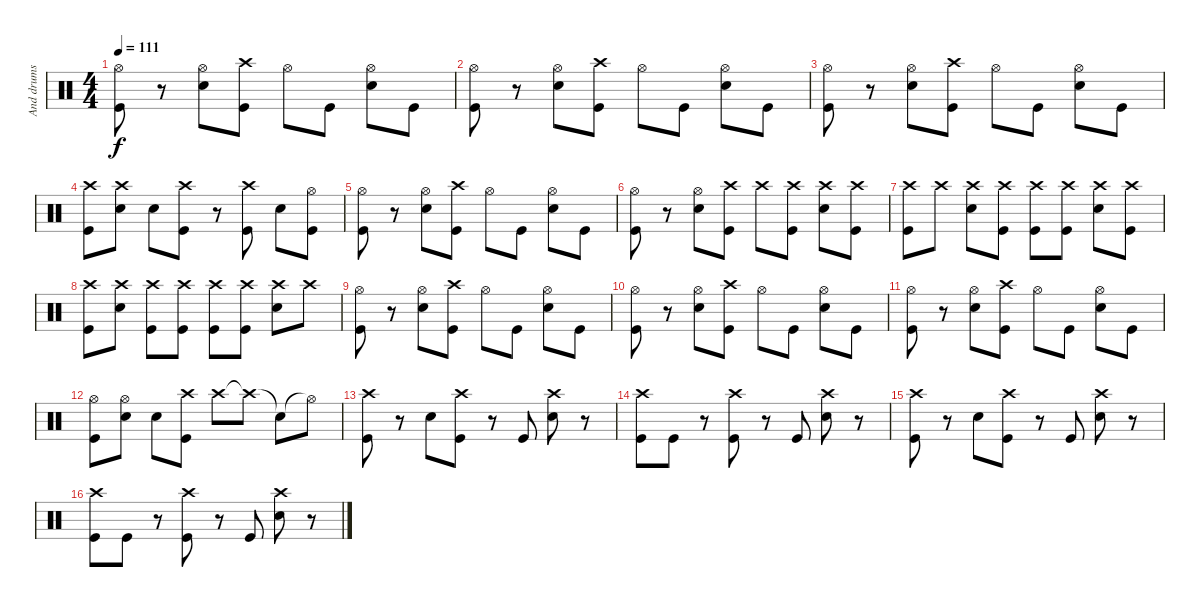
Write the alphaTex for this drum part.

\track ("And drums" "And drums") {instrument percussion}
\staff {score}
\articulation defaults
\ts (4 4)
\tempo 111
\clef neutral
\ks c
("Hi-Hat (open)" "Kick (hit)").8{dy f} r.8 ("Hi-Hat (open)" "Snare (hit) 2").8 ("Crash high (hit)" "Kick (hit)").8 "Hi-Hat (open)".8 "Kick (hit)".8 ("Hi-Hat (open)" "Snare (hit) 2").8 "Kick (hit)".8 |
("Hi-Hat (open)" "Kick (hit)").8 r.8 ("Hi-Hat (open)" "Snare (hit) 2").8 ("Crash high (hit)" "Kick (hit)").8 "Hi-Hat (open)".8 "Kick (hit)".8 ("Hi-Hat (open)" "Snare (hit) 2").8 "Kick (hit)".8 |
("Hi-Hat (open)" "Kick (hit)").8 r.8 ("Hi-Hat (open)" "Snare (hit) 2").8 ("Crash high (hit)" "Kick (hit)").8 "Hi-Hat (open)".8 "Kick (hit)".8 ("Hi-Hat (open)" "Snare (hit) 2").8 "Kick (hit)".8 |
("Crash high (hit)" "Kick (hit)").8 ("Crash high (hit)" "Snare (hit) 2").8 "Snare (hit) 2".8 ("Crash high (hit)" "Kick (hit)").8 r.8 ("Crash high (hit)" "Kick (hit)").8 "Snare (hit) 2".8 ("Hi-Hat (open)" "Kick (hit)").8 |
("Hi-Hat (open)" "Kick (hit)").8 r.8 ("Hi-Hat (open)" "Snare (hit) 2").8 ("Crash high (hit)" "Kick (hit)").8 "Hi-Hat (open)".8 "Kick (hit)".8 ("Hi-Hat (open)" "Snare (hit) 2").8 "Kick (hit)".8 |
("Hi-Hat (open)" "Kick (hit)").8 r.8 ("Hi-Hat (open)" "Snare (hit) 2").8 ("Crash high (hit)" "Kick (hit)").8 "Crash high (hit)".8 ("Crash high (hit)" "Kick (hit)").8 ("Crash high (hit)" "Snare (hit) 2").8 ("Crash high (hit)" "Kick (hit)").8 |
("Crash high (hit)" "Kick (hit)").8 "Crash high (hit)".8 ("Crash high (hit)" "Snare (hit) 2").8 ("Crash high (hit)" "Kick (hit)").8 ("Crash high (hit)" "Kick (hit)").8 ("Crash high (hit)" "Kick (hit)").8 ("Crash high (hit)" "Snare (hit) 2").8 ("Crash high (hit)" "Kick (hit)").8 |
("Crash high (hit)" "Kick (hit)").8 ("Crash high (hit)" "Snare (hit) 2").8 ("Crash high (hit)" "Kick (hit)").8 ("Crash high (hit)" "Kick (hit)").8 ("Crash high (hit)" "Kick (hit)").8 ("Crash high (hit)" "Kick (hit)").8 ("Crash high (hit)" "Snare (hit) 2").8 "Crash high (hit)".8 |
("Hi-Hat (open)" "Kick (hit)").8 r.8 ("Hi-Hat (open)" "Snare (hit) 2").8 ("Crash high (hit)" "Kick (hit)").8 "Hi-Hat (open)".8 "Kick (hit)".8 ("Hi-Hat (open)" "Snare (hit) 2").8 "Kick (hit)".8 |
("Hi-Hat (open)" "Kick (hit)").8 r.8 ("Hi-Hat (open)" "Snare (hit) 2").8 ("Crash high (hit)" "Kick (hit)").8 "Hi-Hat (open)".8 "Kick (hit)".8 ("Hi-Hat (open)" "Snare (hit) 2").8 "Kick (hit)".8 |
("Hi-Hat (open)" "Kick (hit)").8 r.8 ("Hi-Hat (open)" "Snare (hit) 2").8 ("Crash high (hit)" "Kick (hit)").8 "Hi-Hat (open)".8 "Kick (hit)".8 ("Hi-Hat (open)" "Snare (hit) 2").8 "Kick (hit)".8 |
("Hi-Hat (open)" "Kick (hit)").8 ("Hi-Hat (open)" "Snare (hit) 2").8 "Snare (hit) 2".8 ("Crash high (hit)" "Kick (hit)").8 "Crash high (hit)".8 "Crash high (hit)"{t}.8 "Snare (hit)"{t}.8 "Hi-Hat (open)"{t}.8 |
("Crash high (hit)" "Kick (hit)").8 r.8 "Snare (hit) 2".8 ("Crash high (hit)" "Kick (hit)").8 r.8 "Kick (hit)".8 ("Crash high (hit)" "Snare (hit) 2").8 r.8 |
("Crash high (hit)" "Kick (hit)").8 "Kick (hit)".8 r.8 ("Crash high (hit)" "Kick (hit)").8 r.8 "Kick (hit)".8 ("Crash high (hit)" "Snare (hit) 2").8 r.8 |
("Crash high (hit)" "Kick (hit)").8 r.8 "Snare (hit) 2".8 ("Crash high (hit)" "Kick (hit)").8 r.8 "Kick (hit)".8 ("Crash high (hit)" "Snare (hit) 2").8 r.8 |
("Crash high (hit)" "Kick (hit)").8 "Kick (hit)".8 r.8 ("Crash high (hit)" "Kick (hit)").8 r.8 "Kick (hit)".8 ("Crash high (hit)" "Snare (hit) 2").8 r.8
